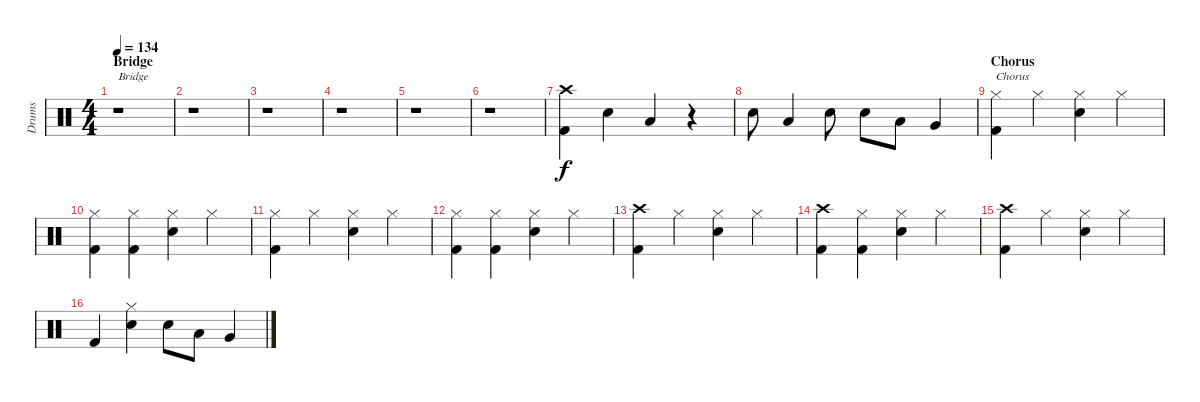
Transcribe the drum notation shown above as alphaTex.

\track ("Drums" "Drums") {instrument percussion}
\staff {score}
\articulation defaults
\ts (4 4)
\section ("" "Bridge")
\tempo 134
\clef neutral
\ks c
r.1{txt "Bridge" dy f} |
r.1 |
r.1 |
r.1 |
r.1 |
r.1 |
("Crash high (hit)" "Kick (hit) 2").4 "Electric Snare (hit)".4 "Low Tom (hit)".4 r.4 |
"Electric Snare (hit)".8 "Low Tom (hit)".4 "Electric Snare (hit)".8 "Electric Snare (hit)".8 "Low Tom (hit)".8 "Very Low Tom (hit)".4 |
\section ("" "Chorus")
("Hi-Hat (closed)" "Kick (hit) 2").4{txt "Chorus"} "Hi-Hat (closed)".4 ("Hi-Hat (closed)" "Electric Snare (hit)").4 "Hi-Hat (closed)".4 |
("Hi-Hat (closed)" "Kick (hit) 2").4 ("Hi-Hat (closed)" "Kick (hit) 2").4 ("Hi-Hat (closed)" "Electric Snare (hit)").4 "Hi-Hat (closed)".4 |
("Hi-Hat (closed)" "Kick (hit) 2").4 "Hi-Hat (closed)".4 ("Hi-Hat (closed)" "Electric Snare (hit)").4 "Hi-Hat (closed)".4 |
("Hi-Hat (closed)" "Kick (hit) 2").4 ("Hi-Hat (closed)" "Kick (hit) 2").4 ("Hi-Hat (closed)" "Electric Snare (hit)").4 "Hi-Hat (closed)".4 |
("Crash high (hit)" "Kick (hit) 2").4 "Hi-Hat (closed)".4 ("Hi-Hat (closed)" "Electric Snare (hit)").4 "Hi-Hat (closed)".4 |
("Crash high (hit)" "Kick (hit) 2").4 ("Hi-Hat (closed)" "Kick (hit) 2").4 ("Hi-Hat (closed)" "Electric Snare (hit)").4 "Hi-Hat (closed)".4 |
("Crash high (hit)" "Kick (hit) 2").4 "Hi-Hat (closed)".4 ("Hi-Hat (closed)" "Electric Snare (hit)").4 "Hi-Hat (closed)".4 |
"Kick (hit) 2".4 ("Hi-Hat (closed)" "Electric Snare (hit)").4 "Electric Snare (hit)".8 "Low Tom (hit)".8 "Very Low Tom (hit)".4
